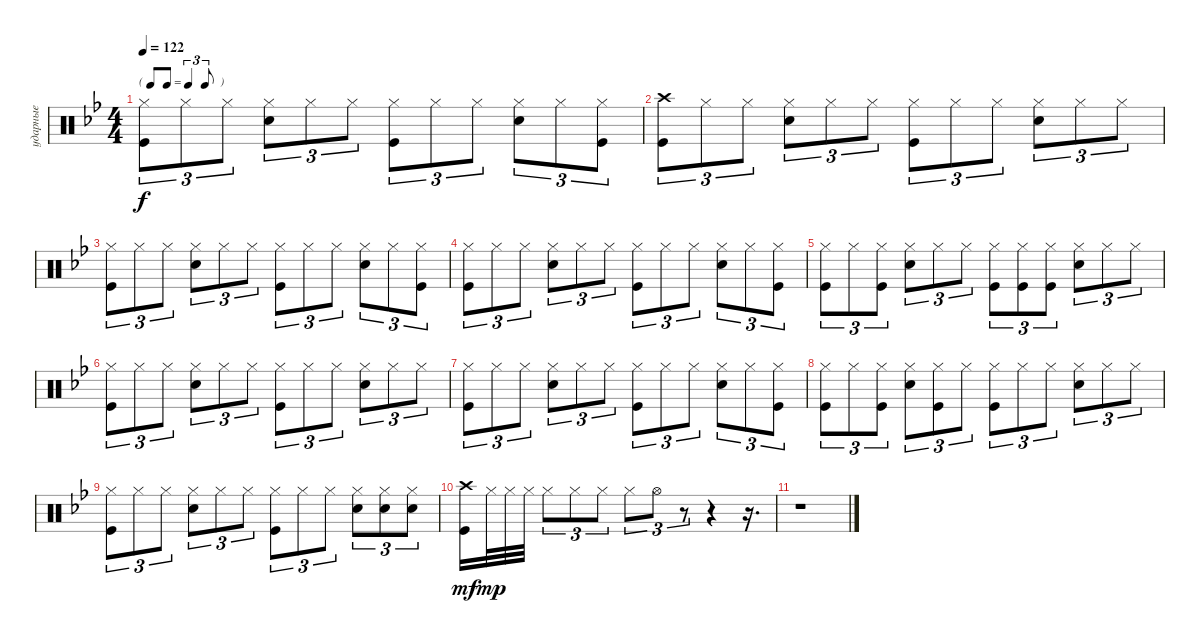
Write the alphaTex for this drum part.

\track ("ударные" "ударные") {instrument percussion}
\staff {score}
\articulation defaults
\ts (4 4)
\tf triplet8th
\tempo 122
\clef neutral
\ks gminor
("Hi-Hat (closed)" "Kick (hit)").8{tu (3 2) dy f} "Hi-Hat (closed)".8{tu (3 2)} "Hi-Hat (closed)".8{tu (3 2)} ("Hi-Hat (closed)" "Snare (hit) 2").8{tu (3 2)} "Hi-Hat (closed)".8{tu (3 2)} "Hi-Hat (closed)".8{tu (3 2)} ("Hi-Hat (closed)" "Kick (hit)").8{tu (3 2)} "Hi-Hat (closed)".8{tu (3 2)} "Hi-Hat (closed)".8{tu (3 2)} ("Hi-Hat (closed)" "Snare (hit) 2").8{tu (3 2)} "Hi-Hat (closed)".8{tu (3 2)} ("Hi-Hat (closed)" "Kick (hit)").8{tu (3 2)} |
("Kick (hit)" "Crash high (hit)").8{tu (3 2)} "Hi-Hat (closed)".8{tu (3 2)} "Hi-Hat (closed)".8{tu (3 2)} ("Hi-Hat (closed)" "Snare (hit) 2").8{tu (3 2)} "Hi-Hat (closed)".8{tu (3 2)} "Hi-Hat (closed)".8{tu (3 2)} ("Hi-Hat (closed)" "Kick (hit)").8{tu (3 2)} "Hi-Hat (closed)".8{tu (3 2)} "Hi-Hat (closed)".8{tu (3 2)} ("Hi-Hat (closed)" "Snare (hit) 2").8{tu (3 2)} "Hi-Hat (closed)".8{tu (3 2)} "Hi-Hat (closed)".8{tu (3 2)} |
("Hi-Hat (closed)" "Kick (hit)").8{tu (3 2)} "Hi-Hat (closed)".8{tu (3 2)} "Hi-Hat (closed)".8{tu (3 2)} ("Hi-Hat (closed)" "Snare (hit) 2").8{tu (3 2)} "Hi-Hat (closed)".8{tu (3 2)} "Hi-Hat (closed)".8{tu (3 2)} ("Hi-Hat (closed)" "Kick (hit)").8{tu (3 2)} "Hi-Hat (closed)".8{tu (3 2)} "Hi-Hat (closed)".8{tu (3 2)} ("Hi-Hat (closed)" "Snare (hit) 2").8{tu (3 2)} "Hi-Hat (closed)".8{tu (3 2)} ("Hi-Hat (closed)" "Kick (hit)").8{tu (3 2)} |
("Hi-Hat (closed)" "Kick (hit)").8{tu (3 2)} "Hi-Hat (closed)".8{tu (3 2)} "Hi-Hat (closed)".8{tu (3 2)} ("Hi-Hat (closed)" "Snare (hit) 2").8{tu (3 2)} "Hi-Hat (closed)".8{tu (3 2)} "Hi-Hat (closed)".8{tu (3 2)} ("Hi-Hat (closed)" "Kick (hit)").8{tu (3 2)} "Hi-Hat (closed)".8{tu (3 2)} "Hi-Hat (closed)".8{tu (3 2)} ("Hi-Hat (closed)" "Snare (hit) 2").8{tu (3 2)} "Hi-Hat (closed)".8{tu (3 2)} ("Hi-Hat (closed)" "Kick (hit)").8{tu (3 2)} |
("Hi-Hat (closed)" "Kick (hit)").8{tu (3 2)} "Hi-Hat (closed)".8{tu (3 2)} ("Hi-Hat (closed)" "Kick (hit)").8{tu (3 2)} ("Hi-Hat (closed)" "Snare (hit) 2").8{tu (3 2)} "Hi-Hat (closed)".8{tu (3 2)} "Hi-Hat (closed)".8{tu (3 2)} ("Hi-Hat (closed)" "Kick (hit)").8{tu (3 2)} ("Hi-Hat (closed)" "Kick (hit)").8{tu (3 2)} ("Hi-Hat (closed)" "Kick (hit)").8{tu (3 2)} ("Hi-Hat (closed)" "Snare (hit) 2").8{tu (3 2)} "Hi-Hat (closed)".8{tu (3 2)} "Hi-Hat (closed)".8{tu (3 2)} |
("Hi-Hat (closed)" "Kick (hit)").8{tu (3 2)} "Hi-Hat (closed)".8{tu (3 2)} "Hi-Hat (closed)".8{tu (3 2)} ("Hi-Hat (closed)" "Snare (hit) 2").8{tu (3 2)} "Hi-Hat (closed)".8{tu (3 2)} "Hi-Hat (closed)".8{tu (3 2)} ("Hi-Hat (closed)" "Kick (hit)").8{tu (3 2)} "Hi-Hat (closed)".8{tu (3 2)} "Hi-Hat (closed)".8{tu (3 2)} ("Hi-Hat (closed)" "Snare (hit) 2").8{tu (3 2)} "Hi-Hat (closed)".8{tu (3 2)} "Hi-Hat (closed)".8{tu (3 2)} |
("Hi-Hat (closed)" "Kick (hit)").8{tu (3 2)} "Hi-Hat (closed)".8{tu (3 2)} "Hi-Hat (closed)".8{tu (3 2)} ("Hi-Hat (closed)" "Snare (hit) 2").8{tu (3 2)} "Hi-Hat (closed)".8{tu (3 2)} "Hi-Hat (closed)".8{tu (3 2)} ("Hi-Hat (closed)" "Kick (hit)").8{tu (3 2)} "Hi-Hat (closed)".8{tu (3 2)} "Hi-Hat (closed)".8{tu (3 2)} ("Hi-Hat (closed)" "Snare (hit) 2").8{tu (3 2)} "Hi-Hat (closed)".8{tu (3 2)} ("Hi-Hat (closed)" "Kick (hit)").8{tu (3 2)} |
("Hi-Hat (closed)" "Kick (hit)").8{tu (3 2)} "Hi-Hat (closed)".8{tu (3 2)} ("Hi-Hat (closed)" "Kick (hit)").8{tu (3 2)} ("Hi-Hat (closed)" "Snare (hit) 2").8{tu (3 2)} ("Hi-Hat (closed)" "Kick (hit)").8{tu (3 2)} "Hi-Hat (closed)".8{tu (3 2)} ("Hi-Hat (closed)" "Kick (hit)").8{tu (3 2)} "Hi-Hat (closed)".8{tu (3 2)} "Hi-Hat (closed)".8{tu (3 2)} ("Hi-Hat (closed)" "Snare (hit) 2").8{tu (3 2)} "Hi-Hat (closed)".8{tu (3 2)} "Hi-Hat (closed)".8{tu (3 2)} |
("Hi-Hat (closed)" "Kick (hit)").8{tu (3 2)} "Hi-Hat (closed)".8{tu (3 2)} "Hi-Hat (closed)".8{tu (3 2)} ("Hi-Hat (closed)" "Snare (hit) 2").8{tu (3 2)} "Hi-Hat (closed)".8{tu (3 2)} "Hi-Hat (closed)".8{tu (3 2)} ("Hi-Hat (closed)" "Kick (hit)").8{tu (3 2)} "Hi-Hat (closed)".8{tu (3 2)} "Hi-Hat (closed)".8{tu (3 2)} ("Hi-Hat (closed)" "Snare (hit) 2").8{tu (3 2)} ("Hi-Hat (closed)" "Snare (hit) 2").8{tu (3 2)} ("Hi-Hat (closed)" "Snare (hit) 2").8{tu (3 2)} |
("Kick (hit)" "Crash high (hit)").16{dy mf} "Hi-Hat (closed)".32{dy mp} "Hi-Hat (closed)".32 "Hi-Hat (closed)".32{beam split} "Hi-Hat (closed)".8{tu (3 2) beam merge} "Hi-Hat (closed)".8{tu (3 2) beam merge} "Hi-Hat (closed)".8{tu (3 2) beam split} "Hi-Hat (closed)".8{tu (3 2)} "Hi-Hat (open)".8{tu (3 2)} r.8{tu (3 2)} r.4 r.16{d} |
r.1
